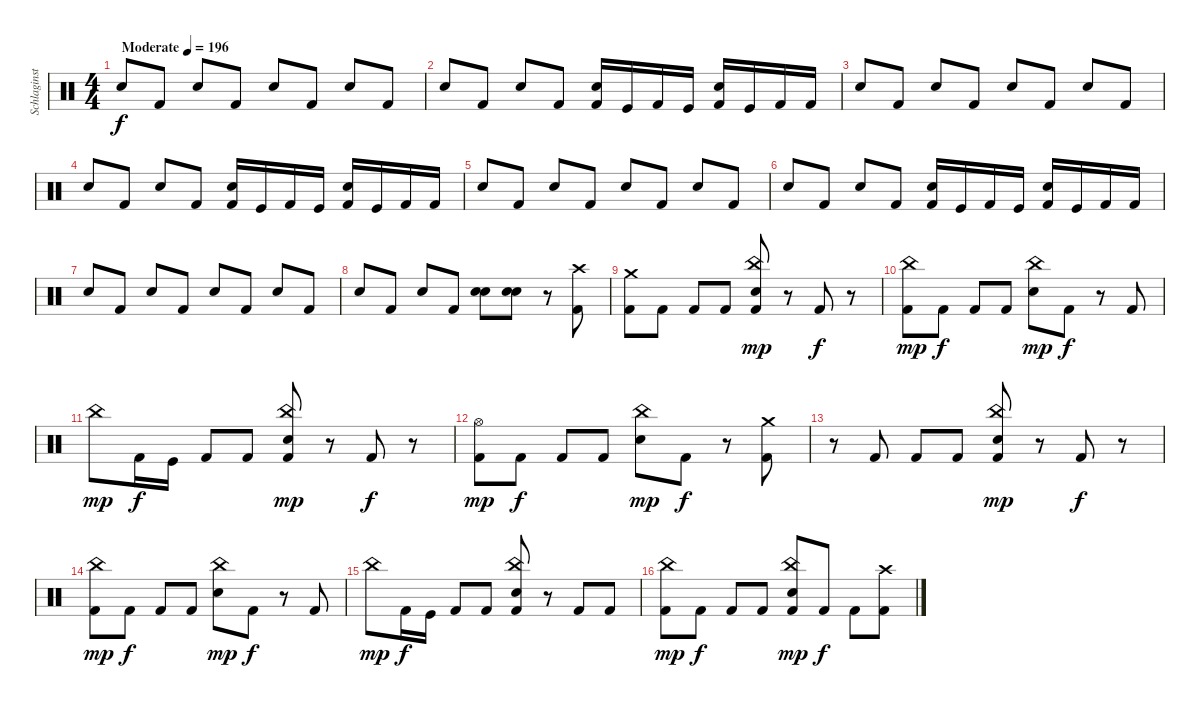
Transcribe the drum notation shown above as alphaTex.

\track ("Schlaginstrumente - Auswahl" "Schlaginst") {instrument percussion}
\staff
\articulation defaults
\ts (4 4)
\tempo (196 "Moderate")
\clef neutral
\ks c "Electric Snare (hit)".8{dy f} "Kick (hit) 2".8 "Electric Snare (hit)".8 "Kick (hit) 2".8 "Electric Snare (hit)".8 "Kick (hit) 2".8 "Electric Snare (hit)".8 "Kick (hit) 2".8
|
"Electric Snare (hit)".8 "Kick (hit) 2".8 "Electric Snare (hit)".8 "Kick (hit) 2".8 ("Electric Snare (hit)" "Kick (hit) 2").16 "Kick (hit)".16 "Kick (hit) 2".16 "Kick (hit)".16 ("Electric Snare (hit)" "Kick (hit) 2").16 "Kick (hit)".16 "Kick (hit) 2".16 "Kick (hit) 2".16 |
"Electric Snare (hit)".8 "Kick (hit) 2".8 "Electric Snare (hit)".8 "Kick (hit) 2".8 "Electric Snare (hit)".8 "Kick (hit) 2".8 "Electric Snare (hit)".8 "Kick (hit) 2".8 |
"Electric Snare (hit)".8 "Kick (hit) 2".8 "Electric Snare (hit)".8 "Kick (hit) 2".8 ("Electric Snare (hit)" "Kick (hit) 2").16 "Kick (hit)".16 "Kick (hit) 2".16 "Kick (hit)".16 ("Electric Snare (hit)" "Kick (hit) 2").16 "Kick (hit)".16 "Kick (hit) 2".16 "Kick (hit) 2".16 |
"Electric Snare (hit)".8 "Kick (hit) 2".8 "Electric Snare (hit)".8 "Kick (hit) 2".8 "Electric Snare (hit)".8 "Kick (hit) 2".8 "Electric Snare (hit)".8 "Kick (hit) 2".8 |
"Electric Snare (hit)".8 "Kick (hit) 2".8 "Electric Snare (hit)".8 "Kick (hit) 2".8 ("Electric Snare (hit)" "Kick (hit) 2").16 "Kick (hit)".16 "Kick (hit) 2".16 "Kick (hit)".16 ("Electric Snare (hit)" "Kick (hit) 2").16 "Kick (hit)".16 "Kick (hit) 2".16 "Kick (hit) 2".16 |
"Electric Snare (hit)".8 "Kick (hit) 2".8 "Electric Snare (hit)".8 "Kick (hit) 2".8 "Electric Snare (hit)".8 "Kick (hit) 2".8 "Electric Snare (hit)".8 "Kick (hit) 2".8 |
"Electric Snare (hit)".8 "Kick (hit) 2".8 "Electric Snare (hit)".8 "Kick (hit) 2".8 ("Electric Snare (hit)" "Electric Snare (hit)").8{bd 60 volume 13} ("Electric Snare (hit)" "Electric Snare (hit)").8{bd 60} r.8 ("Crash high (hit)" "Kick (hit) 2").8 |
("Crash medium (hit)" "Kick (hit) 2").8 "Kick (hit) 2".8 "Kick (hit) 2".8 "Kick (hit) 2".8 ("China (hit)" "Snare (hit) 2" "Kick (hit) 2").8{dy mp} r.8 "Kick (hit) 2".8{dy f} r.8 |
("China (hit)" "Kick (hit) 2").8{dy mp} "Kick (hit) 2".8{dy f} "Kick (hit) 2".8 "Kick (hit) 2".8 ("China (hit)" "Snare (hit) 2").8{dy mp} "Kick (hit) 2".8{dy f} r.8 "Kick (hit) 2".8 |
"China (hit)".8{dy mp} "Kick (hit) 2".16{dy f} "Kick (hit)".16 "Kick (hit) 2".8 "Kick (hit) 2".8 ("China (hit)" "Snare (hit) 2" "Kick (hit) 2").8{dy mp} r.8 "Kick (hit) 2".8{dy f} r.8 |
("Hi-Hat (open)" "Kick (hit) 2").8{dy mp} "Kick (hit) 2".8{dy f} "Kick (hit) 2".8 "Kick (hit) 2".8 ("China (hit)" "Snare (hit) 2").8{dy mp} "Kick (hit) 2".8{dy f} r.8 ("Crash medium (hit)" "Kick (hit) 2").8 |
r.8 "Kick (hit) 2".8 "Kick (hit) 2".8 "Kick (hit) 2".8 ("China (hit)" "Snare (hit) 2" "Kick (hit) 2").8{dy mp} r.8 "Kick (hit) 2".8{dy f} r.8 |
("China (hit)" "Kick (hit) 2").8{dy mp} "Kick (hit) 2".8{dy f} "Kick (hit) 2".8 "Kick (hit) 2".8 ("China (hit)" "Snare (hit) 2").8{dy mp} "Kick (hit) 2".8{dy f} r.8 "Kick (hit) 2".8 |
"China (hit)".8{dy mp} "Kick (hit) 2".16{dy f} "Kick (hit)".16 "Kick (hit) 2".8 "Kick (hit) 2".8 ("China (hit)" "Snare (hit) 2" "Kick (hit) 2").8 r.8 "Kick (hit) 2".8 "Kick (hit) 2".8 |
("China (hit)" "Kick (hit) 2").8{dy mp} "Kick (hit) 2".8{dy f} "Kick (hit) 2".8 "Kick (hit) 2".8 ("China (hit)" "Snare (hit) 2" "Kick (hit) 2").8{dy mp} "Kick (hit) 2".8{dy f} "Kick (hit) 2".8 ("Crash high (hit)" "Kick (hit) 2").8
